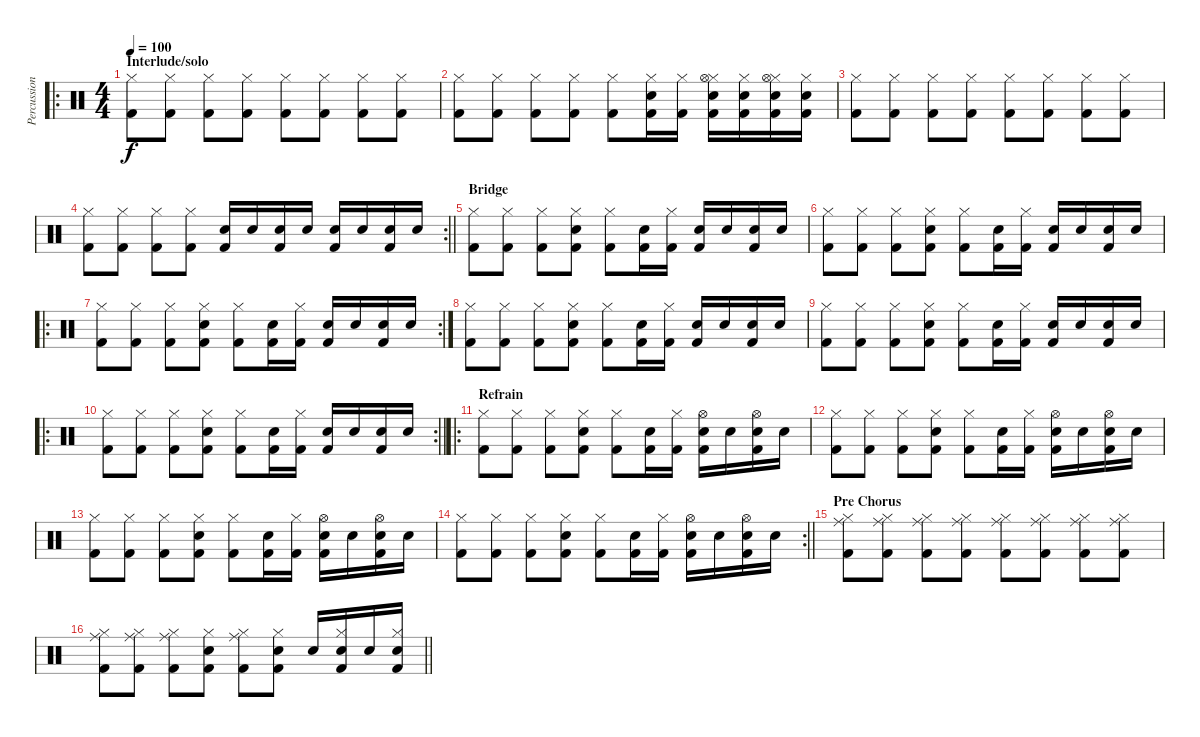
\track ("Percussion" "Percussion") {instrument percussion}
\staff {score}
\articulation defaults
\ro
\ts (4 4)
\section ("" "Interlude/solo")
\tempo 100
\clef neutral
\ks c
("Kick (hit) 2" "Hi-Hat (closed)").8{dy f} ("Kick (hit) 2" "Hi-Hat (closed)").8 ("Kick (hit) 2" "Hi-Hat (closed)").8 ("Kick (hit) 2" "Hi-Hat (closed)").8 ("Kick (hit) 2" "Hi-Hat (closed)").8 ("Kick (hit) 2" "Hi-Hat (closed)").8 ("Kick (hit) 2" "Hi-Hat (closed)").8 ("Kick (hit) 2" "Hi-Hat (closed)").8 |
("Kick (hit) 2" "Hi-Hat (closed)").8 ("Kick (hit) 2" "Hi-Hat (closed)").8 ("Kick (hit) 2" "Hi-Hat (closed)").8 ("Kick (hit) 2" "Hi-Hat (closed)").8 ("Kick (hit) 2" "Hi-Hat (closed)").8 ("Kick (hit) 2" "Hi-Hat (closed)" "Snare (hit) 2").16 ("Kick (hit) 2" "Hi-Hat (closed)").16 ("Kick (hit) 2" "Hi-Hat (closed)" "Snare (hit) 2" "Hi-Hat (open)").16 ("Kick (hit) 2" "Hi-Hat (closed)" "Snare (hit) 2").16 ("Kick (hit) 2" "Hi-Hat (closed)" "Snare (hit) 2" "Hi-Hat (open)").16 ("Kick (hit) 2" "Hi-Hat (closed)" "Snare (hit) 2").16 |
("Kick (hit) 2" "Hi-Hat (closed)").8 ("Kick (hit) 2" "Hi-Hat (closed)").8 ("Kick (hit) 2" "Hi-Hat (closed)").8 ("Kick (hit) 2" "Hi-Hat (closed)").8 ("Kick (hit) 2" "Hi-Hat (closed)").8 ("Kick (hit) 2" "Hi-Hat (closed)").8 ("Kick (hit) 2" "Hi-Hat (closed)").8 ("Kick (hit) 2" "Hi-Hat (closed)").8 |
\rc 2
\barLineRight lightlight
("Kick (hit) 2" "Hi-Hat (closed)").8 ("Kick (hit) 2" "Hi-Hat (closed)").8 ("Kick (hit) 2" "Hi-Hat (closed)").8 ("Kick (hit) 2" "Hi-Hat (closed)").8 ("Kick (hit) 2" "Snare (hit) 2").16 "Snare (hit) 2".16 ("Kick (hit) 2" "Snare (hit) 2").16 "Snare (hit) 2".16 ("Kick (hit) 2" "Snare (hit) 2").16 "Snare (hit) 2".16 ("Kick (hit) 2" "Snare (hit) 2").16 "Snare (hit) 2".16 |
\section ("" "Bridge")
("Kick (hit) 2" "Hi-Hat (closed)").8 ("Kick (hit) 2" "Hi-Hat (closed)").8 ("Kick (hit) 2" "Hi-Hat (closed)").8 ("Kick (hit) 2" "Snare (hit) 2" "Hi-Hat (closed)").8 ("Kick (hit) 2" "Hi-Hat (closed)").8 ("Kick (hit) 2" "Snare (hit) 2").16 ("Kick (hit) 2" "Hi-Hat (closed)").16 ("Kick (hit) 2" "Snare (hit) 2").16 "Snare (hit) 2".16 ("Kick (hit) 2" "Snare (hit) 2").16 "Snare (hit) 2".16 |
("Kick (hit) 2" "Hi-Hat (closed)").8 ("Kick (hit) 2" "Hi-Hat (closed)").8 ("Kick (hit) 2" "Hi-Hat (closed)").8 ("Kick (hit) 2" "Snare (hit) 2" "Hi-Hat (closed)").8 ("Kick (hit) 2" "Hi-Hat (closed)").8 ("Kick (hit) 2" "Snare (hit) 2").16 ("Kick (hit) 2" "Hi-Hat (closed)").16 ("Kick (hit) 2" "Snare (hit) 2").16 "Snare (hit) 2".16 ("Kick (hit) 2" "Snare (hit) 2").16 "Snare (hit) 2".16 |
\ro
\rc 2
("Kick (hit) 2" "Hi-Hat (closed)").8 ("Kick (hit) 2" "Hi-Hat (closed)").8 ("Kick (hit) 2" "Hi-Hat (closed)").8 ("Kick (hit) 2" "Snare (hit) 2" "Hi-Hat (closed)").8 ("Kick (hit) 2" "Hi-Hat (closed)").8 ("Kick (hit) 2" "Snare (hit) 2").16 ("Kick (hit) 2" "Hi-Hat (closed)").16 ("Kick (hit) 2" "Snare (hit) 2").16 "Snare (hit) 2".16 ("Kick (hit) 2" "Snare (hit) 2").16 "Snare (hit) 2".16 |
("Kick (hit) 2" "Hi-Hat (closed)").8 ("Kick (hit) 2" "Hi-Hat (closed)").8 ("Kick (hit) 2" "Hi-Hat (closed)").8 ("Kick (hit) 2" "Snare (hit) 2" "Hi-Hat (closed)").8 ("Kick (hit) 2" "Hi-Hat (closed)").8 ("Kick (hit) 2" "Snare (hit) 2").16 ("Kick (hit) 2" "Hi-Hat (closed)").16 ("Kick (hit) 2" "Snare (hit) 2").16 "Snare (hit) 2".16 ("Kick (hit) 2" "Snare (hit) 2").16 "Snare (hit) 2".16 |
("Kick (hit) 2" "Hi-Hat (closed)").8 ("Kick (hit) 2" "Hi-Hat (closed)").8 ("Kick (hit) 2" "Hi-Hat (closed)").8 ("Kick (hit) 2" "Snare (hit) 2" "Hi-Hat (closed)").8 ("Kick (hit) 2" "Hi-Hat (closed)").8 ("Kick (hit) 2" "Snare (hit) 2").16 ("Kick (hit) 2" "Hi-Hat (closed)").16 ("Kick (hit) 2" "Snare (hit) 2").16 "Snare (hit) 2".16 ("Kick (hit) 2" "Snare (hit) 2").16 "Snare (hit) 2".16 |
\ro
\rc 2
\barLineRight lightlight
("Kick (hit) 2" "Hi-Hat (closed)").8 ("Kick (hit) 2" "Hi-Hat (closed)").8 ("Kick (hit) 2" "Hi-Hat (closed)").8 ("Kick (hit) 2" "Snare (hit) 2" "Hi-Hat (closed)").8 ("Kick (hit) 2" "Hi-Hat (closed)").8 ("Kick (hit) 2" "Snare (hit) 2").16 ("Kick (hit) 2" "Hi-Hat (closed)").16 ("Kick (hit) 2" "Snare (hit) 2").16 "Snare (hit) 2".16 ("Kick (hit) 2" "Snare (hit) 2").16 "Snare (hit) 2".16 |
\ro
\section ("" "Refrain")
("Kick (hit) 2" "Hi-Hat (closed)").8 ("Kick (hit) 2" "Hi-Hat (closed)").8 ("Kick (hit) 2" "Hi-Hat (closed)").8 ("Kick (hit) 2" "Snare (hit) 2" "Hi-Hat (closed)").8 ("Kick (hit) 2" "Hi-Hat (closed)").8 ("Kick (hit) 2" "Snare (hit) 2").16 ("Kick (hit) 2" "Hi-Hat (closed)").16 ("Kick (hit) 2" "Snare (hit) 2" "Hi-Hat (open)").16 "Snare (hit) 2".16 ("Kick (hit) 2" "Snare (hit) 2" "Hi-Hat (open)").16 "Snare (hit) 2".16 |
("Kick (hit) 2" "Hi-Hat (closed)").8 ("Kick (hit) 2" "Hi-Hat (closed)").8 ("Kick (hit) 2" "Hi-Hat (closed)").8 ("Kick (hit) 2" "Snare (hit) 2" "Hi-Hat (closed)").8 ("Kick (hit) 2" "Hi-Hat (closed)").8 ("Kick (hit) 2" "Snare (hit) 2").16 ("Kick (hit) 2" "Hi-Hat (closed)").16 ("Kick (hit) 2" "Snare (hit) 2" "Hi-Hat (open)").16 "Snare (hit) 2".16 ("Kick (hit) 2" "Snare (hit) 2" "Hi-Hat (open)").16 "Snare (hit) 2".16 |
("Kick (hit) 2" "Hi-Hat (closed)").8 ("Kick (hit) 2" "Hi-Hat (closed)").8 ("Kick (hit) 2" "Hi-Hat (closed)").8 ("Kick (hit) 2" "Snare (hit) 2" "Hi-Hat (closed)").8 ("Kick (hit) 2" "Hi-Hat (closed)").8 ("Kick (hit) 2" "Snare (hit) 2").16 ("Kick (hit) 2" "Hi-Hat (closed)").16 ("Kick (hit) 2" "Snare (hit) 2" "Hi-Hat (open)").16 "Snare (hit) 2".16 ("Kick (hit) 2" "Snare (hit) 2" "Hi-Hat (open)").16 "Snare (hit) 2".16 |
\rc 2
\barLineRight lightlight
("Kick (hit) 2" "Hi-Hat (closed)").8 ("Kick (hit) 2" "Hi-Hat (closed)").8 ("Kick (hit) 2" "Hi-Hat (closed)").8 ("Kick (hit) 2" "Snare (hit) 2" "Hi-Hat (closed)").8 ("Kick (hit) 2" "Hi-Hat (closed)").8 ("Kick (hit) 2" "Snare (hit) 2").16 ("Kick (hit) 2" "Hi-Hat (closed)").16 ("Kick (hit) 2" "Snare (hit) 2" "Hi-Hat (open)").16 "Snare (hit) 2".16 ("Kick (hit) 2" "Snare (hit) 2" "Hi-Hat (open)").16 "Snare (hit) 2".16 |
\section ("" "Pre Chorus")
("Kick (hit) 2" "Hi-Hat (closed)" "Ride (middle)").8 ("Kick (hit) 2" "Hi-Hat (closed)" "Ride (middle)").8 ("Kick (hit) 2" "Hi-Hat (closed)" "Ride (middle)").8 ("Kick (hit) 2" "Hi-Hat (closed)" "Ride (middle)").8 ("Kick (hit) 2" "Hi-Hat (closed)" "Ride (middle)").8 ("Kick (hit) 2" "Hi-Hat (closed)" "Ride (middle)").8 ("Kick (hit) 2" "Hi-Hat (closed)" "Ride (middle)").8 ("Kick (hit) 2" "Hi-Hat (closed)" "Ride (middle)").8 |
\barLineRight lightlight
("Kick (hit) 2" "Hi-Hat (closed)" "Ride (middle)").8 ("Kick (hit) 2" "Hi-Hat (closed)" "Ride (middle)").8 ("Kick (hit) 2" "Hi-Hat (closed)" "Ride (middle)").8 ("Kick (hit) 2" "Hi-Hat (closed)" "Snare (hit) 2").8 ("Kick (hit) 2" "Hi-Hat (closed)" "Ride (middle)").8 ("Kick (hit) 2" "Hi-Hat (closed)" "Snare (hit) 2").8 "Snare (hit) 2".16 ("Kick (hit) 2" "Hi-Hat (closed)" "Snare (hit) 2").16 "Snare (hit) 2".16 ("Kick (hit) 2" "Hi-Hat (closed)" "Snare (hit) 2").16
